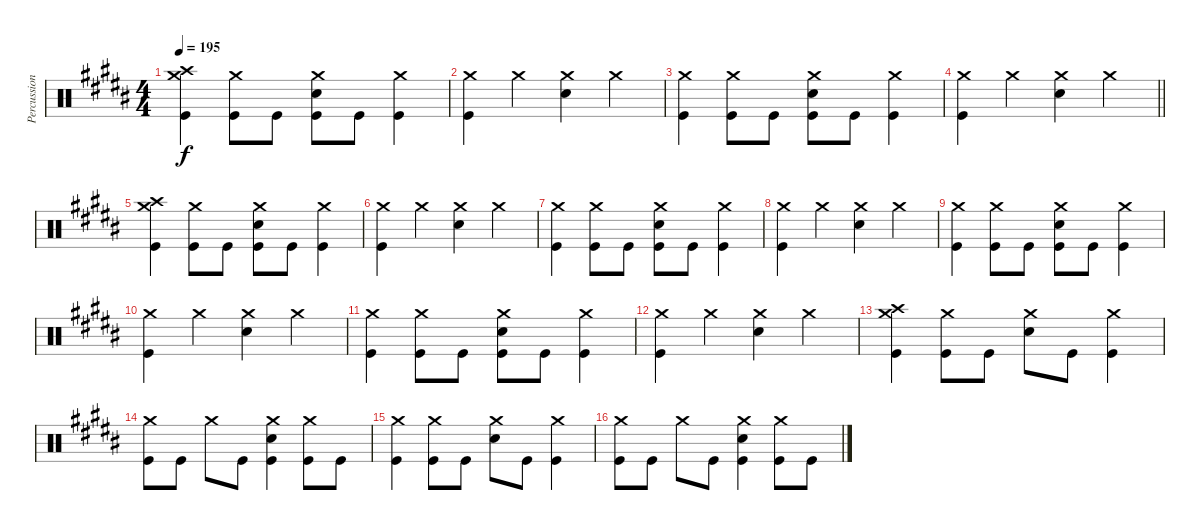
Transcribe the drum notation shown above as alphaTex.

\track ("Percussion" "Percussion") {instrument percussion}
\staff {score}
\articulation defaults
\ts (4 4)
\tempo 195
\clef neutral
\ks b
("Crash high (hit)" "Crash medium (hit)" "Kick (hit)").4{dy f} ("Crash medium (hit)" "Kick (hit)").8 "Kick (hit)".8 ("Crash medium (hit)" "Electric Snare (hit)" "Kick (hit)").8 "Kick (hit)".8 ("Crash medium (hit)" "Kick (hit)").4 |
("Crash medium (hit)" "Kick (hit)").4 "Crash medium (hit)".4 ("Crash medium (hit)" "Electric Snare (hit)").4 "Crash medium (hit)".4 |
("Crash medium (hit)" "Kick (hit)").4 ("Crash medium (hit)" "Kick (hit)").8 "Kick (hit)".8 ("Crash medium (hit)" "Electric Snare (hit)" "Kick (hit)").8 "Kick (hit)".8 ("Crash medium (hit)" "Kick (hit)").4 |
\barLineRight lightlight
("Crash medium (hit)" "Kick (hit)").4 "Crash medium (hit)".4 ("Crash medium (hit)" "Electric Snare (hit)").4 "Crash medium (hit)".4 |
("Crash high (hit)" "Crash medium (hit)" "Kick (hit)").4 ("Crash medium (hit)" "Kick (hit)").8 "Kick (hit)".8 ("Crash medium (hit)" "Electric Snare (hit)" "Kick (hit)").8 "Kick (hit)".8 ("Crash medium (hit)" "Kick (hit)").4 |
("Crash medium (hit)" "Kick (hit)").4 "Crash medium (hit)".4 ("Crash medium (hit)" "Electric Snare (hit)").4 "Crash medium (hit)".4 |
("Crash medium (hit)" "Kick (hit)").4 ("Crash medium (hit)" "Kick (hit)").8 "Kick (hit)".8 ("Crash medium (hit)" "Electric Snare (hit)" "Kick (hit)").8 "Kick (hit)".8 ("Crash medium (hit)" "Kick (hit)").4 |
("Crash medium (hit)" "Kick (hit)").4 "Crash medium (hit)".4 ("Crash medium (hit)" "Electric Snare (hit)").4 "Crash medium (hit)".4 |
("Crash medium (hit)" "Kick (hit)").4 ("Crash medium (hit)" "Kick (hit)").8 "Kick (hit)".8 ("Crash medium (hit)" "Electric Snare (hit)" "Kick (hit)").8 "Kick (hit)".8 ("Crash medium (hit)" "Kick (hit)").4 |
("Crash medium (hit)" "Kick (hit)").4 "Crash medium (hit)".4 ("Crash medium (hit)" "Electric Snare (hit)").4 "Crash medium (hit)".4 |
("Crash medium (hit)" "Kick (hit)").4 ("Crash medium (hit)" "Kick (hit)").8 "Kick (hit)".8 ("Crash medium (hit)" "Electric Snare (hit)" "Kick (hit)").8 "Kick (hit)".8 ("Crash medium (hit)" "Kick (hit)").4 |
("Crash medium (hit)" "Kick (hit)").4 "Crash medium (hit)".4 ("Crash medium (hit)" "Electric Snare (hit)").4 "Crash medium (hit)".4 |
("Crash high (hit)" "Crash medium (hit)" "Kick (hit)").4 ("Crash medium (hit)" "Kick (hit)").8 "Kick (hit)".8 ("Crash medium (hit)" "Electric Snare (hit)").8 "Kick (hit)".8 ("Crash medium (hit)" "Kick (hit)").4 |
("Crash medium (hit)" "Kick (hit)").8 "Kick (hit)".8 "Crash medium (hit)".8 "Kick (hit)".8 ("Crash medium (hit)" "Electric Snare (hit)" "Kick (hit)").4 ("Crash medium (hit)" "Kick (hit)").8 "Kick (hit)".8 |
("Crash medium (hit)" "Kick (hit)").4 ("Crash medium (hit)" "Kick (hit)").8 "Kick (hit)".8 ("Crash medium (hit)" "Electric Snare (hit)").8 "Kick (hit)".8 ("Crash medium (hit)" "Kick (hit)").4 |
("Crash medium (hit)" "Kick (hit)").8 "Kick (hit)".8 "Crash medium (hit)".8 "Kick (hit)".8 ("Crash medium (hit)" "Electric Snare (hit)" "Kick (hit)").4 ("Crash medium (hit)" "Kick (hit)").8 "Kick (hit)".8
